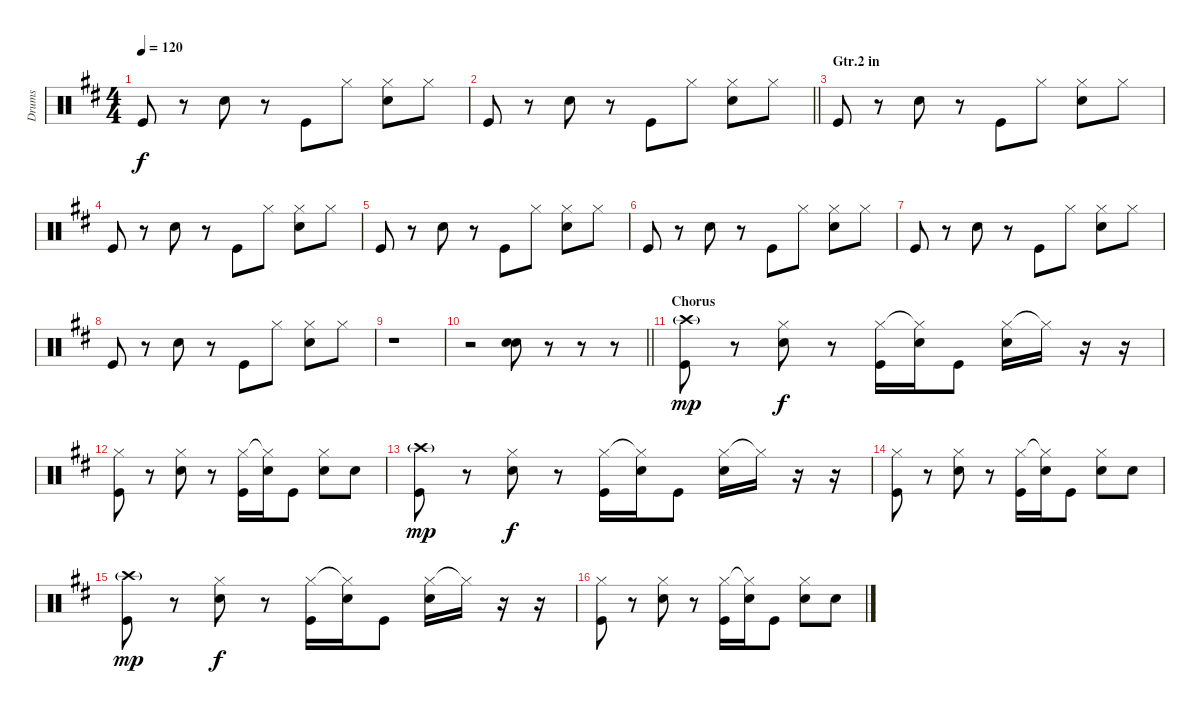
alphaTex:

\track ("Drums" "Drums") {instrument percussion}
\staff {score}
\articulation defaults
\ts (4 4)
\tempo 120
\clef neutral
\ks d "Kick (hit)".8{dy f}
r.8 "Snare (hit) 2".8 r.8 "Kick (hit)".8 "Hi-Hat (closed)".8 ("Hi-Hat (closed)" "Snare (hit) 2").8 "Hi-Hat (closed)".8 |
\barLineRight lightlight "Kick (hit)".8
r.8 "Snare (hit) 2".8 r.8 "Kick (hit)".8 "Hi-Hat (closed)".8 ("Hi-Hat (closed)" "Snare (hit) 2").8 "Hi-Hat (closed)".8 |
\section ("" "Gtr.2 in")
"Kick (hit)".8 r.8 "Snare (hit) 2".8 r.8 "Kick (hit)".8 "Hi-Hat (closed)".8 ("Hi-Hat (closed)" "Snare (hit) 2").8 "Hi-Hat (closed)".8 |
"Kick (hit)".8 r.8 "Snare (hit) 2".8 r.8 "Kick (hit)".8 "Hi-Hat (closed)".8 ("Hi-Hat (closed)" "Snare (hit) 2").8 "Hi-Hat (closed)".8 |
"Kick (hit)".8 r.8 "Snare (hit) 2".8 r.8 "Kick (hit)".8 "Hi-Hat (closed)".8 ("Hi-Hat (closed)" "Snare (hit) 2").8 "Hi-Hat (closed)".8 |
"Kick (hit)".8 r.8 "Snare (hit) 2".8 r.8 "Kick (hit)".8 "Hi-Hat (closed)".8 ("Hi-Hat (closed)" "Snare (hit) 2").8 "Hi-Hat (closed)".8 |
"Kick (hit)".8 r.8 "Snare (hit) 2".8 r.8 "Kick (hit)".8 "Hi-Hat (closed)".8 ("Hi-Hat (closed)" "Snare (hit) 2").8 "Hi-Hat (closed)".8 |
"Kick (hit)".8 r.8 "Snare (hit) 2".8 r.8 "Kick (hit)".8 "Hi-Hat (closed)".8 ("Hi-Hat (closed)" "Snare (hit) 2").8 "Hi-Hat (closed)".8 |
r.1 |
\barLineRight lightlight
r.2 ("Electric Snare (hit)" "Snare (hit) 2").8 r.8 r.8 r.8 |
\section ("" "Chorus")
("Crash high (hit)"{g} "Kick (hit)").8{dy mp} r.8 ("Hi-Hat (closed)" "Snare (hit) 2").8{dy f} r.8 ("Hi-Hat (closed)" "Kick (hit)").16 ("Hi-Hat (closed)"{t} "Snare (hit) 2").16 "Kick (hit)".8 ("Hi-Hat (closed)" "Snare (hit) 2").16 "Hi-Hat (closed)"{t}.16 r.16 r.16 |
("Hi-Hat (closed)" "Kick (hit)").8 r.8 ("Hi-Hat (closed)" "Snare (hit) 2").8 r.8 ("Hi-Hat (closed)" "Kick (hit)").16 ("Hi-Hat (closed)"{t} "Snare (hit) 2").16 "Kick (hit)".8 ("Hi-Hat (closed)" "Snare (hit) 2").8 "Snare (hit) 2".8 |
("Crash high (hit)"{g} "Kick (hit)").8{dy mp} r.8 ("Hi-Hat (closed)" "Snare (hit) 2").8{dy f} r.8 ("Hi-Hat (closed)" "Kick (hit)").16 ("Hi-Hat (closed)"{t} "Snare (hit) 2").16 "Kick (hit)".8 ("Hi-Hat (closed)" "Snare (hit) 2").16 "Hi-Hat (closed)"{t}.16 r.16 r.16 |
("Hi-Hat (closed)" "Kick (hit)").8 r.8 ("Hi-Hat (closed)" "Snare (hit) 2").8 r.8 ("Hi-Hat (closed)" "Kick (hit)").16 ("Hi-Hat (closed)"{t} "Snare (hit) 2").16 "Kick (hit)".8 ("Hi-Hat (closed)" "Snare (hit) 2").8 "Snare (hit) 2".8 |
("Crash high (hit)"{g} "Kick (hit)").8{dy mp} r.8 ("Hi-Hat (closed)" "Snare (hit) 2").8{dy f} r.8 ("Hi-Hat (closed)" "Kick (hit)").16 ("Hi-Hat (closed)"{t} "Snare (hit) 2").16 "Kick (hit)".8 ("Hi-Hat (closed)" "Snare (hit) 2").16 "Hi-Hat (closed)"{t}.16 r.16 r.16 |
("Hi-Hat (closed)" "Kick (hit)").8 r.8 ("Hi-Hat (closed)" "Snare (hit) 2").8 r.8 ("Hi-Hat (closed)" "Kick (hit)").16 ("Hi-Hat (closed)"{t} "Snare (hit) 2").16 "Kick (hit)".8 ("Hi-Hat (closed)" "Snare (hit) 2").8 "Snare (hit) 2".8
